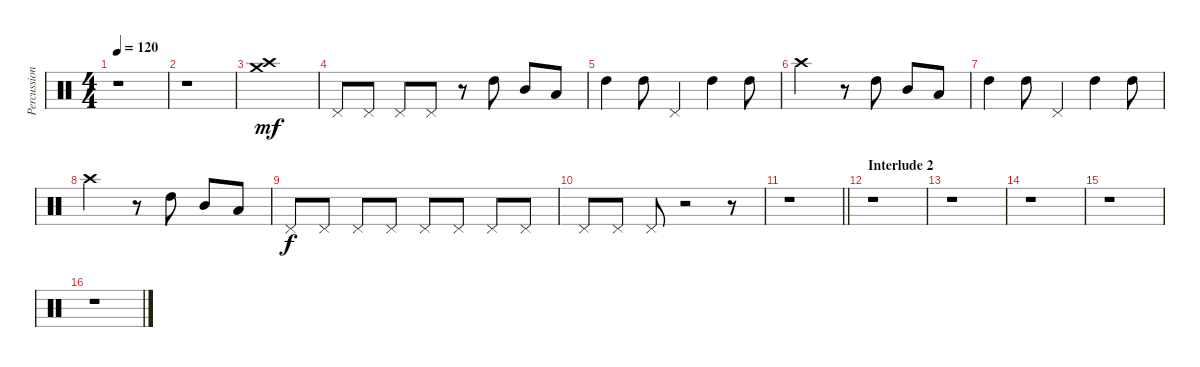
\track ("Percussion" "Percussion") {instrument percussion}
\staff {score}
\articulation defaults
\ts (4 4)
\tempo 120
\clef neutral
\ks c
r.1{dy mf} |
r.1 |
("Crash medium (hit)" "Crash high (hit)").1 |
"Pedal Hi-Hat (hit)".8 "Pedal Hi-Hat (hit)".8 "Pedal Hi-Hat (hit)".8 "Pedal Hi-Hat (hit)".8 r.8 "High Tom (hit)".8 "Mid Tom (hit)".8 "Low Tom (hit)".8 |
"High Tom (hit)".4 "High Tom (hit)".8 "Pedal Hi-Hat (hit)".4 "High Tom (hit)".4 "High Tom (hit)".8 |
"Crash high (hit)".2 r.8 "High Tom (hit)".8 "Mid Tom (hit)".8 "Low Tom (hit)".8 |
"High Tom (hit)".4 "High Tom (hit)".8 "Pedal Hi-Hat (hit)".4 "High Tom (hit)".4 "High Tom (hit)".8 |
"Crash high (hit)".2 r.8 "High Tom (hit)".8 "Mid Tom (hit)".8 "Low Tom (hit)".8 |
"Pedal Hi-Hat (hit)".8{dy f} "Pedal Hi-Hat (hit)".8 "Pedal Hi-Hat (hit)".8 "Pedal Hi-Hat (hit)".8 "Pedal Hi-Hat (hit)".8 "Pedal Hi-Hat (hit)".8 "Pedal Hi-Hat (hit)".8 "Pedal Hi-Hat (hit)".8 |
"Pedal Hi-Hat (hit)".8 "Pedal Hi-Hat (hit)".8 "Pedal Hi-Hat (hit)".8 r.2 r.8 |
\barLineRight lightlight
r.1 |
\section ("" "Interlude 2")
r.1 |
r.1 |
r.1 |
r.1 |
r.1
